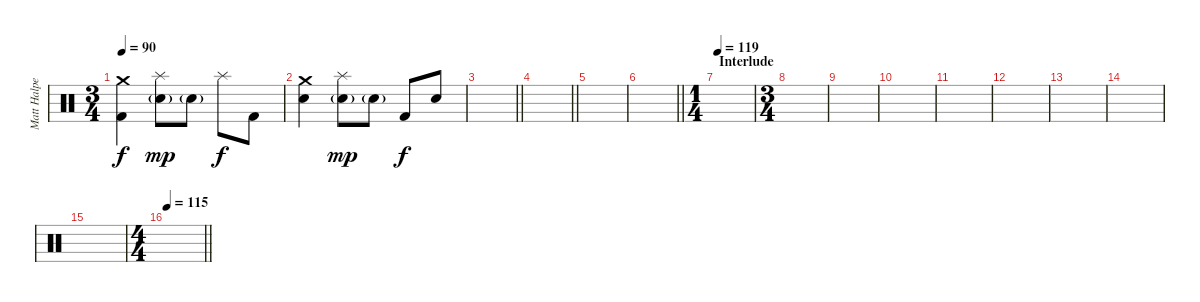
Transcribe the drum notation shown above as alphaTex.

\track ("Matt Halpern - Drums" "Matt Halpe") {instrument percussion}
\staff {score}
\articulation defaults
\ts (3 4)
\tempo 90
\clef neutral
\ks c
("Crash medium (hit)" "Kick (hit) 2").4{dy f} ("Splash (hit)" "Snare (hit) 2"{g}).8{dy mp} "Snare (hit) 2"{g}.8 "Splash (hit)".8{dy f} "Kick (hit) 2".8 |
("Crash medium (hit)" "Snare (hit) 2").4 ("Splash (hit)" "Snare (hit) 2"{g}).8{dy mp} "Snare (hit) 2"{g}.8 "Kick (hit) 2".8{dy f} "Snare (hit) 2".8 |
\barLineRight lightlight
|
\barLineRight lightlight
|
|
\barLineRight lightlight
|
\ts (1 4)
\section ("" "Interlude")
\tempo 119
|
\ts (3 4)
|
|
|
|
|
|
|
|
\ts (4 4)
\tempo 115
\barLineRight lightlight
